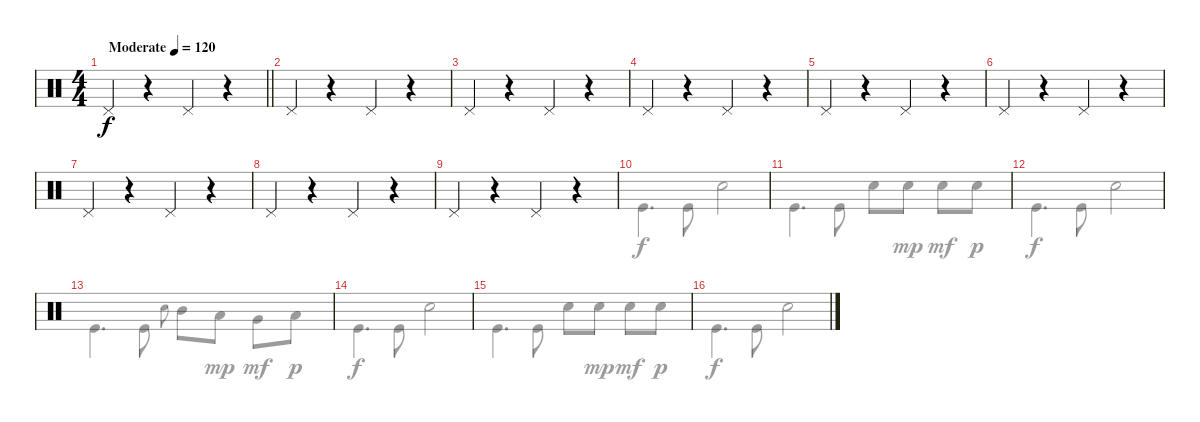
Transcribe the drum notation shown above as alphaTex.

\track "" {instrument percussion}
\staff {score}
\articulation defaults
\voice
\ts (4 4)
\tempo (120 "Moderate")
\clef neutral
\barLineRight lightlight
\ks c "Pedal Hi-Hat (hit)".4{dy f}
r.4 "Pedal Hi-Hat (hit)".4 r.4 |
"Pedal Hi-Hat (hit)".4 r.4 "Pedal Hi-Hat (hit)".4 r.4 |
"Pedal Hi-Hat (hit)".4 r.4 "Pedal Hi-Hat (hit)".4 r.4 |
"Pedal Hi-Hat (hit)".4 r.4 "Pedal Hi-Hat (hit)".4 r.4 |
"Pedal Hi-Hat (hit)".4 r.4 "Pedal Hi-Hat (hit)".4 r.4 |
"Pedal Hi-Hat (hit)".4 r.4 "Pedal Hi-Hat (hit)".4 r.4 |
"Pedal Hi-Hat (hit)".4 r.4 "Pedal Hi-Hat (hit)".4 r.4 |
"Pedal Hi-Hat (hit)".4 r.4 "Pedal Hi-Hat (hit)".4 r.4 |
"Pedal Hi-Hat (hit)".4 r.4 "Pedal Hi-Hat (hit)".4 r.4 |
|
|
|
|
|
|
\voice
\clef neutral
\ottava regular
\simile none
\barLineRight lightlight
\ks c
|
|
|
|
|
|
|
|
|
"Kick (hit)".4{d} "Kick (hit)".8 "Snare (hit) 2".2 |
"Kick (hit)".4{d} "Kick (hit)".8 "Snare (hit) 2".8 "Snare (hit) 2".8{dy mp} "Snare (hit) 2".8{dy mf} "Snare (hit) 2".8{dy p} |
"Kick (hit)".4{d dy f} "Kick (hit)".8 "Snare (hit) 2".2 |
"Kick (hit)".4{d} "Kick (hit)".8 "Snare (hit) 2".8{gr onbeat} "Mid Tom (hit)".8 "Low Tom (hit)".8{dy mp} "Very Low Tom (hit)".8{dy mf} "Low Floor Tom (hit)".8{dy p} |
"Kick (hit)".4{d dy f} "Kick (hit)".8 "Snare (hit) 2".2 |
"Kick (hit)".4{d} "Kick (hit)".8 "Snare (hit) 2".8 "Snare (hit) 2".8{dy mp} "Snare (hit) 2".8{dy mf} "Snare (hit) 2".8{dy p} |
"Kick (hit)".4{d dy f} "Kick (hit)".8 "Snare (hit) 2".2
